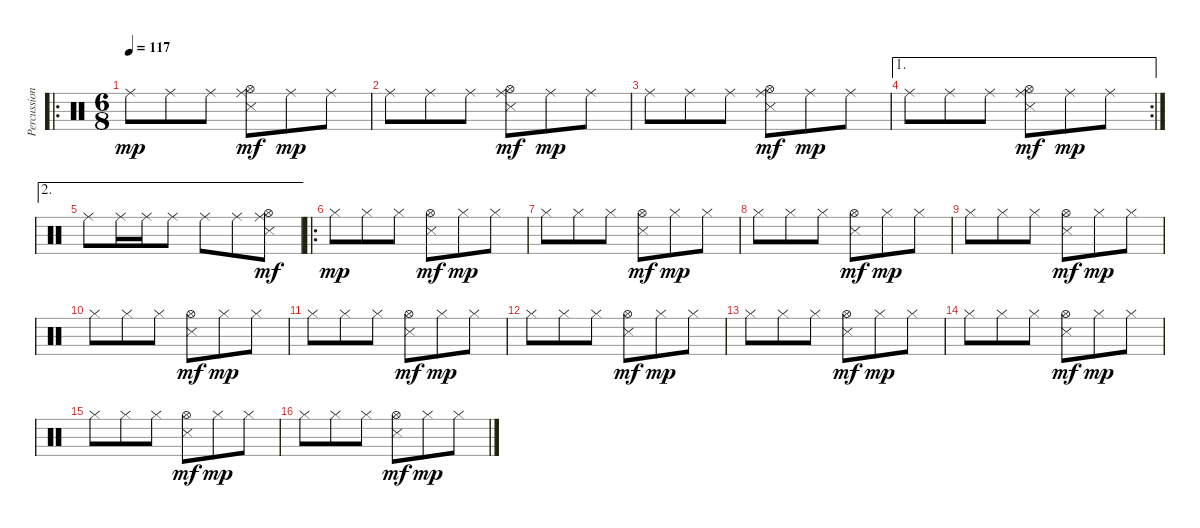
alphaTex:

\track ("Percussions" "Percussion") {instrument percussion}
\staff {score}
\articulation defaults
\ro
\ts (6 8)
\tempo 117
\clef neutral
\ks c "Ride (middle)".8{dy mp volume 11} "Ride (middle)".8 "Ride (middle)".8
("Ride (middle)" "Hi-Hat (open)" "Snare (side stick) 3").8{dy mf} "Ride (middle)".8{dy mp} "Ride (middle)".8 |
"Ride (middle)".8 "Ride (middle)".8 "Ride (middle)".8 ("Ride (middle)" "Hi-Hat (open)" "Snare (side stick) 3").8{dy mf} "Ride (middle)".8{dy mp} "Ride (middle)".8 |
"Ride (middle)".8 "Ride (middle)".8 "Ride (middle)".8 ("Ride (middle)" "Hi-Hat (open)" "Snare (side stick) 3").8{dy mf} "Ride (middle)".8{dy mp} "Ride (middle)".8 |
\ae 1
\rc 2 "Ride (middle)".8 "Ride (middle)".8 "Ride (middle)".8
("Ride (middle)" "Hi-Hat (open)" "Snare (side stick) 3").8{dy mf} "Ride (middle)".8{dy mp} "Ride (middle)".8 |
\ae 2 "Ride (middle)".8 "Ride (middle)".16 "Ride (middle)".16 "Ride (middle)".8 "Ride (middle)".8 "Ride (middle)".8
("Ride (middle)" "Hi-Hat (open)" "Snare (side stick) 3").8{dy mf} |
\ro "Hi-Hat (closed)".8{dy mp} "Hi-Hat (closed)".8 "Hi-Hat (closed)".8
("Hi-Hat (open)" "Snare (side stick) 3").8{dy mf} "Hi-Hat (closed)".8{dy mp} "Hi-Hat (closed)".8 |
"Hi-Hat (closed)".8 "Hi-Hat (closed)".8 "Hi-Hat (closed)".8 ("Hi-Hat (open)" "Snare (side stick) 3").8{dy mf} "Hi-Hat (closed)".8{dy mp} "Hi-Hat (closed)".8 |
"Hi-Hat (closed)".8 "Hi-Hat (closed)".8 "Hi-Hat (closed)".8 ("Hi-Hat (open)" "Snare (side stick) 3").8{dy mf} "Hi-Hat (closed)".8{dy mp} "Hi-Hat (closed)".8 |
"Hi-Hat (closed)".8 "Hi-Hat (closed)".8 "Hi-Hat (closed)".8 ("Hi-Hat (open)" "Snare (side stick) 3").8{dy mf} "Hi-Hat (closed)".8{dy mp} "Hi-Hat (closed)".8 |
"Hi-Hat (closed)".8 "Hi-Hat (closed)".8 "Hi-Hat (closed)".8 ("Hi-Hat (open)" "Snare (side stick) 3").8{dy mf} "Hi-Hat (closed)".8{dy mp} "Hi-Hat (closed)".8 |
"Hi-Hat (closed)".8 "Hi-Hat (closed)".8 "Hi-Hat (closed)".8 ("Hi-Hat (open)" "Snare (side stick) 3").8{dy mf} "Hi-Hat (closed)".8{dy mp} "Hi-Hat (closed)".8 |
"Hi-Hat (closed)".8 "Hi-Hat (closed)".8 "Hi-Hat (closed)".8 ("Hi-Hat (open)" "Snare (side stick) 3").8{dy mf} "Hi-Hat (closed)".8{dy mp} "Hi-Hat (closed)".8 |
"Hi-Hat (closed)".8 "Hi-Hat (closed)".8 "Hi-Hat (closed)".8 ("Hi-Hat (open)" "Snare (side stick) 3").8{dy mf} "Hi-Hat (closed)".8{dy mp} "Hi-Hat (closed)".8 |
"Hi-Hat (closed)".8 "Hi-Hat (closed)".8 "Hi-Hat (closed)".8 ("Hi-Hat (open)" "Snare (side stick) 3").8{dy mf} "Hi-Hat (closed)".8{dy mp} "Hi-Hat (closed)".8 |
"Hi-Hat (closed)".8 "Hi-Hat (closed)".8 "Hi-Hat (closed)".8 ("Hi-Hat (open)" "Snare (side stick) 3").8{dy mf} "Hi-Hat (closed)".8{dy mp} "Hi-Hat (closed)".8 |
"Hi-Hat (closed)".8 "Hi-Hat (closed)".8 "Hi-Hat (closed)".8 ("Hi-Hat (open)" "Snare (side stick) 3").8{dy mf} "Hi-Hat (closed)".8{dy mp} "Hi-Hat (closed)".8
